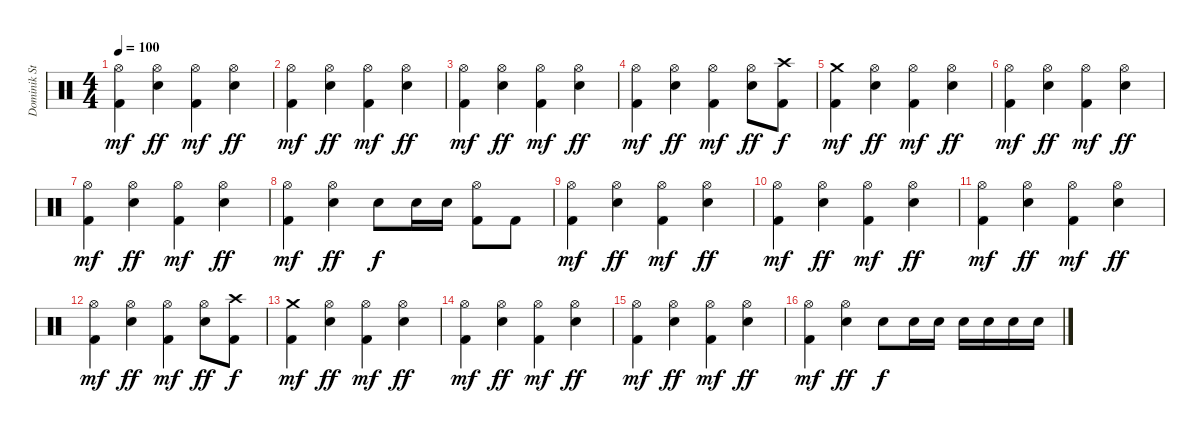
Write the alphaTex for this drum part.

\track ("Dominik Storch" "Dominik St") {instrument percussion}
\staff {score}
\articulation defaults
\ts (4 4)
\tempo 100
\clef neutral
\ks c
("Hi-Hat (open)" "Kick (hit) 2").4{dy mf} ("Hi-Hat (open)" "Electric Snare (hit)").4{dy ff} ("Hi-Hat (open)" "Kick (hit) 2").4{dy mf} ("Hi-Hat (open)" "Electric Snare (hit)").4{dy ff} |
("Hi-Hat (open)" "Kick (hit) 2").4{dy mf} ("Hi-Hat (open)" "Electric Snare (hit)").4{dy ff} ("Hi-Hat (open)" "Kick (hit) 2").4{dy mf} ("Hi-Hat (open)" "Electric Snare (hit)").4{dy ff} |
("Hi-Hat (open)" "Kick (hit) 2").4{dy mf} ("Hi-Hat (open)" "Electric Snare (hit)").4{dy ff} ("Hi-Hat (open)" "Kick (hit) 2").4{dy mf} ("Hi-Hat (open)" "Electric Snare (hit)").4{dy ff} |
("Hi-Hat (open)" "Kick (hit) 2").4{dy mf} ("Hi-Hat (open)" "Electric Snare (hit)").4{dy ff} ("Hi-Hat (open)" "Kick (hit) 2").4{dy mf} ("Hi-Hat (open)" "Electric Snare (hit)").8{dy ff} ("Crash high (hit)" "Kick (hit) 2").8{dy f} |
("Crash medium (hit)" "Kick (hit) 2").4{dy mf} ("Hi-Hat (open)" "Electric Snare (hit)").4{dy ff} ("Hi-Hat (open)" "Kick (hit) 2").4{dy mf} ("Hi-Hat (open)" "Electric Snare (hit)").4{dy ff} |
("Hi-Hat (open)" "Kick (hit) 2").4{dy mf} ("Hi-Hat (open)" "Electric Snare (hit)").4{dy ff} ("Hi-Hat (open)" "Kick (hit) 2").4{dy mf} ("Hi-Hat (open)" "Electric Snare (hit)").4{dy ff} |
("Hi-Hat (open)" "Kick (hit) 2").4{dy mf} ("Hi-Hat (open)" "Electric Snare (hit)").4{dy ff} ("Hi-Hat (open)" "Kick (hit) 2").4{dy mf} ("Hi-Hat (open)" "Electric Snare (hit)").4{dy ff} |
("Hi-Hat (open)" "Kick (hit) 2").4{dy mf} ("Hi-Hat (open)" "Electric Snare (hit)").4{dy ff} "Electric Snare (hit)".8{dy f} "Electric Snare (hit)".16 "Electric Snare (hit)".16 ("Hi-Hat (open)" "Kick (hit) 2").8 "Kick (hit) 2".8 |
("Hi-Hat (open)" "Kick (hit) 2").4{dy mf} ("Hi-Hat (open)" "Electric Snare (hit)").4{dy ff} ("Hi-Hat (open)" "Kick (hit) 2").4{dy mf} ("Hi-Hat (open)" "Electric Snare (hit)").4{dy ff} |
("Hi-Hat (open)" "Kick (hit) 2").4{dy mf} ("Hi-Hat (open)" "Electric Snare (hit)").4{dy ff} ("Hi-Hat (open)" "Kick (hit) 2").4{dy mf} ("Hi-Hat (open)" "Electric Snare (hit)").4{dy ff} |
("Hi-Hat (open)" "Kick (hit) 2").4{dy mf} ("Hi-Hat (open)" "Electric Snare (hit)").4{dy ff} ("Hi-Hat (open)" "Kick (hit) 2").4{dy mf} ("Hi-Hat (open)" "Electric Snare (hit)").4{dy ff} |
("Hi-Hat (open)" "Kick (hit) 2").4{dy mf} ("Hi-Hat (open)" "Electric Snare (hit)").4{dy ff} ("Hi-Hat (open)" "Kick (hit) 2").4{dy mf} ("Hi-Hat (open)" "Electric Snare (hit)").8{dy ff} ("Crash high (hit)" "Kick (hit) 2").8{dy f} |
("Crash medium (hit)" "Kick (hit) 2").4{dy mf} ("Hi-Hat (open)" "Electric Snare (hit)").4{dy ff} ("Hi-Hat (open)" "Kick (hit) 2").4{dy mf} ("Hi-Hat (open)" "Electric Snare (hit)").4{dy ff} |
("Hi-Hat (open)" "Kick (hit) 2").4{dy mf} ("Hi-Hat (open)" "Electric Snare (hit)").4{dy ff} ("Hi-Hat (open)" "Kick (hit) 2").4{dy mf} ("Hi-Hat (open)" "Electric Snare (hit)").4{dy ff} |
("Hi-Hat (open)" "Kick (hit) 2").4{dy mf} ("Hi-Hat (open)" "Electric Snare (hit)").4{dy ff} ("Hi-Hat (open)" "Kick (hit) 2").4{dy mf} ("Hi-Hat (open)" "Electric Snare (hit)").4{dy ff} |
("Hi-Hat (open)" "Kick (hit) 2").4{dy mf} ("Hi-Hat (open)" "Electric Snare (hit)").4{dy ff} "Electric Snare (hit)".8{dy f} "Electric Snare (hit)".16 "Electric Snare (hit)".16 "Electric Snare (hit)".16 "Electric Snare (hit)".16 "Electric Snare (hit)".16 "Electric Snare (hit)".16
